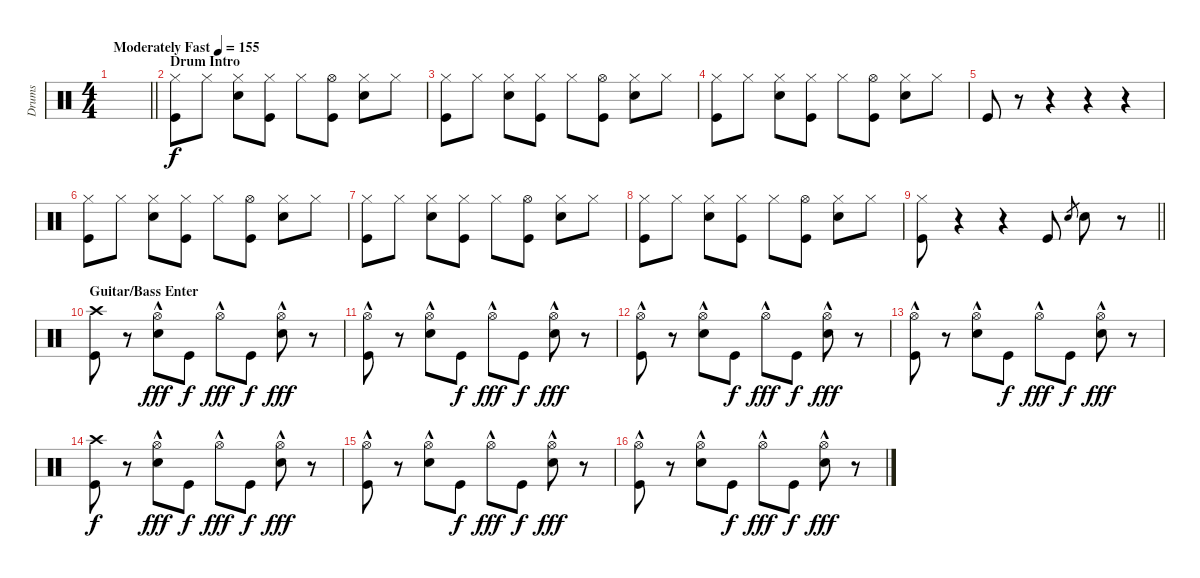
\track ("Drums" "Drums") {instrument percussion}
\staff {score}
\articulation defaults
\ts (4 4)
\tempo (155 "Moderately Fast")
\clef neutral
\barLineRight lightlight
\ks c
|
\section ("" "Drum Intro")
("Hi-Hat (closed)" "Kick (hit)").8 "Hi-Hat (closed)".8 ("Hi-Hat (closed)" "Snare (hit) 2").8 ("Hi-Hat (closed)" "Kick (hit)").8 "Hi-Hat (closed)".8 ("Hi-Hat (open)" "Kick (hit)").8 ("Hi-Hat (closed)" "Snare (hit) 2").8 "Hi-Hat (closed)".8 |
("Hi-Hat (closed)" "Kick (hit)").8 "Hi-Hat (closed)".8 ("Hi-Hat (closed)" "Snare (hit) 2").8 ("Hi-Hat (closed)" "Kick (hit)").8 "Hi-Hat (closed)".8 ("Hi-Hat (open)" "Kick (hit)").8 ("Hi-Hat (closed)" "Snare (hit) 2").8 "Hi-Hat (closed)".8 |
("Hi-Hat (closed)" "Kick (hit)").8 "Hi-Hat (closed)".8 ("Hi-Hat (closed)" "Snare (hit) 2").8 ("Hi-Hat (closed)" "Kick (hit)").8 "Hi-Hat (closed)".8 ("Hi-Hat (open)" "Kick (hit)").8 ("Hi-Hat (closed)" "Snare (hit) 2").8 "Hi-Hat (closed)".8 |
"Kick (hit)".8 r.8 r.4 r.4 r.4 |
("Hi-Hat (closed)" "Kick (hit)").8 "Hi-Hat (closed)".8 ("Hi-Hat (closed)" "Snare (hit) 2").8 ("Hi-Hat (closed)" "Kick (hit)").8 "Hi-Hat (closed)".8 ("Hi-Hat (open)" "Kick (hit)").8 ("Hi-Hat (closed)" "Snare (hit) 2").8 "Hi-Hat (closed)".8 |
("Hi-Hat (closed)" "Kick (hit)").8 "Hi-Hat (closed)".8 ("Hi-Hat (closed)" "Snare (hit) 2").8 ("Hi-Hat (closed)" "Kick (hit)").8 "Hi-Hat (closed)".8 ("Hi-Hat (open)" "Kick (hit)").8 ("Hi-Hat (closed)" "Snare (hit) 2").8 "Hi-Hat (closed)".8 |
("Hi-Hat (closed)" "Kick (hit)").8 "Hi-Hat (closed)".8 ("Hi-Hat (closed)" "Snare (hit) 2").8 ("Hi-Hat (closed)" "Kick (hit)").8 "Hi-Hat (closed)".8 ("Hi-Hat (open)" "Kick (hit)").8 ("Hi-Hat (closed)" "Snare (hit) 2").8 "Hi-Hat (closed)".8 |
\barLineRight lightlight
("Hi-Hat (closed)" "Kick (hit)").8 r.4 r.4 "Kick (hit)".8 "Snare (hit) 2".8{gr} "Snare (hit) 2".8 r.8 |
\section ("" "Guitar/Bass Enter")
("Crash high (hit)" "Kick (hit)").8 r.8 ("Hi-Hat (open)"{hac} "Snare (hit) 2").8{dy fff} "Kick (hit)".8{dy f} "Hi-Hat (open)"{hac}.8{dy fff} "Kick (hit)".8{dy f} ("Hi-Hat (open)"{hac} "Snare (hit) 2").8{dy fff} r.8 |
("Hi-Hat (open)"{hac} "Kick (hit)").8 r.8 ("Hi-Hat (open)"{hac} "Snare (hit) 2").8 "Kick (hit)".8{dy f} "Hi-Hat (open)"{hac}.8{dy fff} "Kick (hit)".8{dy f} ("Hi-Hat (open)"{hac} "Snare (hit) 2").8{dy fff} r.8 |
("Hi-Hat (open)"{hac} "Kick (hit)").8 r.8 ("Hi-Hat (open)"{hac} "Snare (hit) 2").8 "Kick (hit)".8{dy f} "Hi-Hat (open)"{hac}.8{dy fff} "Kick (hit)".8{dy f} ("Hi-Hat (open)"{hac} "Snare (hit) 2").8{dy fff} r.8 |
("Hi-Hat (open)"{hac} "Kick (hit)").8 r.8 ("Hi-Hat (open)"{hac} "Snare (hit) 2").8 "Kick (hit)".8{dy f} "Hi-Hat (open)"{hac}.8{dy fff} "Kick (hit)".8{dy f} ("Hi-Hat (open)"{hac} "Snare (hit) 2").8{dy fff} r.8 |
("Crash high (hit)" "Kick (hit)").8{dy f} r.8 ("Hi-Hat (open)"{hac} "Snare (hit) 2").8{dy fff} "Kick (hit)".8{dy f} "Hi-Hat (open)"{hac}.8{dy fff} "Kick (hit)".8{dy f} ("Hi-Hat (open)"{hac} "Snare (hit) 2").8{dy fff} r.8 |
("Hi-Hat (open)"{hac} "Kick (hit)").8 r.8 ("Hi-Hat (open)"{hac} "Snare (hit) 2").8 "Kick (hit)".8{dy f} "Hi-Hat (open)"{hac}.8{dy fff} "Kick (hit)".8{dy f} ("Hi-Hat (open)"{hac} "Snare (hit) 2").8{dy fff} r.8 |
("Hi-Hat (open)"{hac} "Kick (hit)").8 r.8 ("Hi-Hat (open)"{hac} "Snare (hit) 2").8 "Kick (hit)".8{dy f} "Hi-Hat (open)"{hac}.8{dy fff} "Kick (hit)".8{dy f} ("Hi-Hat (open)"{hac} "Snare (hit) 2").8{dy fff} r.8
